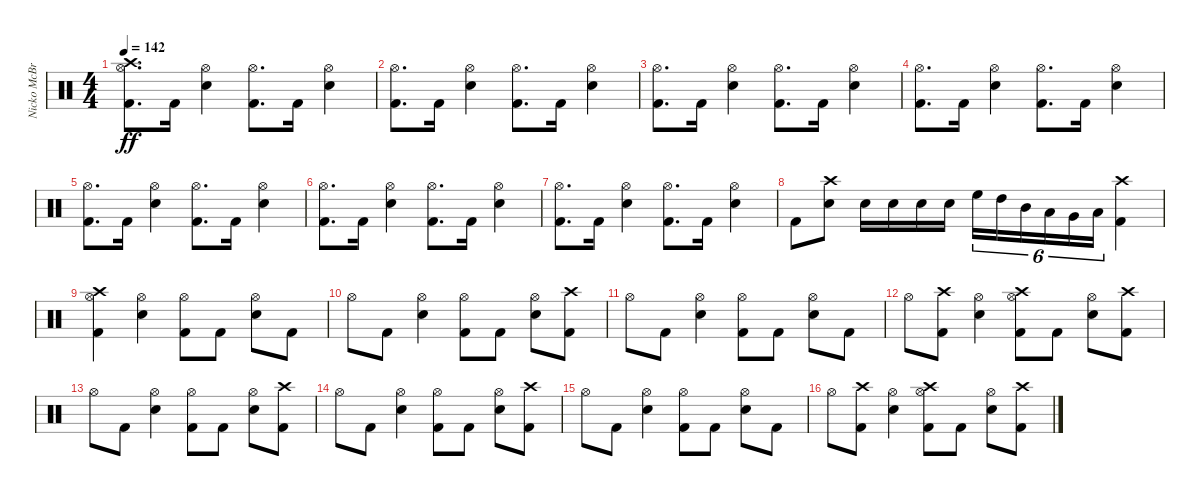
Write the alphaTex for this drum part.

\track ("Nicko McBrain" "Nicko McBr") {instrument percussion}
\staff {score}
\articulation defaults
\ts (4 4)
\tempo 142
\clef neutral
\ks c
("Kick (hit) 2" "Hi-Hat (open)" "Crash high (hit)").8{d dy ff} "Kick (hit) 2".16 ("Snare (hit) 2" "Hi-Hat (open)").4 ("Kick (hit) 2" "Hi-Hat (open)").8{d} "Kick (hit) 2".16 ("Snare (hit) 2" "Hi-Hat (open)").4 |
("Kick (hit) 2" "Hi-Hat (open)").8{d} "Kick (hit) 2".16 ("Snare (hit) 2" "Hi-Hat (open)").4 ("Kick (hit) 2" "Hi-Hat (open)").8{d} "Kick (hit) 2".16 ("Snare (hit) 2" "Hi-Hat (open)").4 |
("Kick (hit) 2" "Hi-Hat (open)").8{d} "Kick (hit) 2".16 ("Snare (hit) 2" "Hi-Hat (open)").4 ("Kick (hit) 2" "Hi-Hat (open)").8{d} "Kick (hit) 2".16 ("Snare (hit) 2" "Hi-Hat (open)").4 |
("Kick (hit) 2" "Hi-Hat (open)").8{d} "Kick (hit) 2".16 ("Snare (hit) 2" "Hi-Hat (open)").4 ("Kick (hit) 2" "Hi-Hat (open)").8{d} "Kick (hit) 2".16 ("Snare (hit) 2" "Hi-Hat (open)").4 |
("Kick (hit) 2" "Hi-Hat (open)").8{d} "Kick (hit) 2".16 ("Snare (hit) 2" "Hi-Hat (open)").4 ("Kick (hit) 2" "Hi-Hat (open)").8{d} "Kick (hit) 2".16 ("Snare (hit) 2" "Hi-Hat (open)").4 |
("Kick (hit) 2" "Hi-Hat (open)").8{d} "Kick (hit) 2".16 ("Snare (hit) 2" "Hi-Hat (open)").4 ("Kick (hit) 2" "Hi-Hat (open)").8{d} "Kick (hit) 2".16 ("Snare (hit) 2" "Hi-Hat (open)").4 |
("Kick (hit) 2" "Hi-Hat (open)").8{d} "Kick (hit) 2".16 ("Snare (hit) 2" "Hi-Hat (open)").4 ("Kick (hit) 2" "Hi-Hat (open)").8{d} "Kick (hit) 2".16 ("Snare (hit) 2" "Hi-Hat (open)").4 |
"Kick (hit) 2".8 ("Snare (hit) 2" "Crash high (hit)").8 "Snare (hit) 2".16 "Snare (hit) 2".16 "Snare (hit) 2".16 "Snare (hit) 2".16 "High Floor Tom (hit)".16{tu (6 4)} "High Tom (hit)".16{tu (6 4)} "Mid Tom (hit)".16{tu (6 4)} "Low Tom (hit)".16{tu (6 4)} "Very Low Tom (hit)".16{tu (6 4)} "Low Floor Tom (hit)".16{tu (6 4)} ("Kick (hit) 2" "Crash high (hit)").4 |
("Kick (hit) 2" "Hi-Hat (open)" "Crash high (hit)").4 ("Snare (hit) 2" "Hi-Hat (open)").4 ("Kick (hit) 2" "Hi-Hat (open)").8 "Kick (hit) 2".8 ("Snare (hit) 2" "Hi-Hat (open)").8 "Kick (hit) 2".8 |
"Hi-Hat (open)".8 "Kick (hit) 2".8 ("Snare (hit) 2" "Hi-Hat (open)").4 ("Kick (hit) 2" "Hi-Hat (open)").8 "Kick (hit) 2".8 ("Snare (hit) 2" "Hi-Hat (open)").8 ("Kick (hit) 2" "Crash high (hit)").8 |
"Hi-Hat (open)".8 "Kick (hit) 2".8 ("Snare (hit) 2" "Hi-Hat (open)").4 ("Kick (hit) 2" "Hi-Hat (open)").8 "Kick (hit) 2".8 ("Snare (hit) 2" "Hi-Hat (open)").8 "Kick (hit) 2".8 |
"Hi-Hat (open)".8 ("Kick (hit) 2" "Crash high (hit)").8 ("Snare (hit) 2" "Hi-Hat (open)").4 ("Kick (hit) 2" "Hi-Hat (open)" "Crash high (hit)").8 "Kick (hit) 2".8 ("Snare (hit) 2" "Hi-Hat (open)").8 ("Kick (hit) 2" "Crash high (hit)").8 |
"Hi-Hat (open)".8 "Kick (hit) 2".8 ("Snare (hit) 2" "Hi-Hat (open)").4 ("Kick (hit) 2" "Hi-Hat (open)").8 "Kick (hit) 2".8 ("Snare (hit) 2" "Hi-Hat (open)").8 ("Kick (hit) 2" "Crash high (hit)").8 |
"Hi-Hat (open)".8 "Kick (hit) 2".8 ("Snare (hit) 2" "Hi-Hat (open)").4 ("Kick (hit) 2" "Hi-Hat (open)").8 "Kick (hit) 2".8 ("Snare (hit) 2" "Hi-Hat (open)").8 ("Kick (hit) 2" "Crash high (hit)").8 |
"Hi-Hat (open)".8 "Kick (hit) 2".8 ("Snare (hit) 2" "Hi-Hat (open)").4 ("Kick (hit) 2" "Hi-Hat (open)").8 "Kick (hit) 2".8 ("Snare (hit) 2" "Hi-Hat (open)").8 "Kick (hit) 2".8 |
"Hi-Hat (open)".8 ("Kick (hit) 2" "Crash high (hit)").8 ("Snare (hit) 2" "Hi-Hat (open)").4 ("Kick (hit) 2" "Hi-Hat (open)" "Crash high (hit)").8 "Kick (hit) 2".8 ("Snare (hit) 2" "Hi-Hat (open)").8 ("Kick (hit) 2" "Crash high (hit)").8
